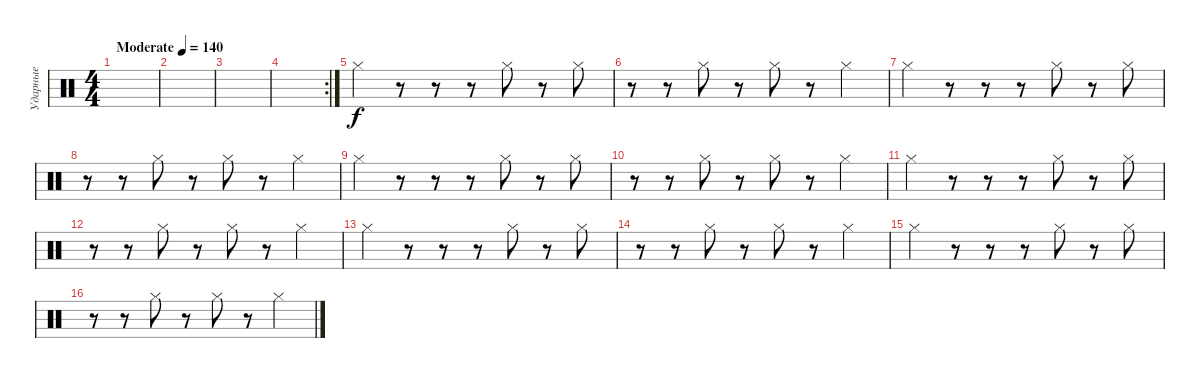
\track ("Ударные" "Ударные") {instrument percussion}
\staff {score}
\articulation defaults
\ts (4 4)
\tempo (140 "Moderate")
\clef neutral
\ks c
|
|
|
\rc 2
|
"Hi-Hat (closed)".4 r.8 r.8 r.8 "Hi-Hat (closed)".8 r.8 "Hi-Hat (closed)".8 |
r.8 r.8 "Hi-Hat (closed)".8 r.8 "Hi-Hat (closed)".8 r.8 "Hi-Hat (closed)".4 |
"Hi-Hat (closed)".4 r.8 r.8 r.8 "Hi-Hat (closed)".8 r.8 "Hi-Hat (closed)".8 |
r.8 r.8 "Hi-Hat (closed)".8 r.8 "Hi-Hat (closed)".8 r.8 "Hi-Hat (closed)".4 |
"Hi-Hat (closed)".4 r.8 r.8 r.8 "Hi-Hat (closed)".8 r.8 "Hi-Hat (closed)".8 |
r.8 r.8 "Hi-Hat (closed)".8 r.8 "Hi-Hat (closed)".8 r.8 "Hi-Hat (closed)".4 |
"Hi-Hat (closed)".4 r.8 r.8 r.8 "Hi-Hat (closed)".8 r.8 "Hi-Hat (closed)".8 |
r.8 r.8 "Hi-Hat (closed)".8 r.8 "Hi-Hat (closed)".8 r.8 "Hi-Hat (closed)".4 |
"Hi-Hat (closed)".4 r.8 r.8 r.8 "Hi-Hat (closed)".8 r.8 "Hi-Hat (closed)".8 |
r.8 r.8 "Hi-Hat (closed)".8 r.8 "Hi-Hat (closed)".8 r.8 "Hi-Hat (closed)".4 |
"Hi-Hat (closed)".4 r.8 r.8 r.8 "Hi-Hat (closed)".8 r.8 "Hi-Hat (closed)".8 |
r.8 r.8 "Hi-Hat (closed)".8 r.8 "Hi-Hat (closed)".8 r.8 "Hi-Hat (closed)".4
